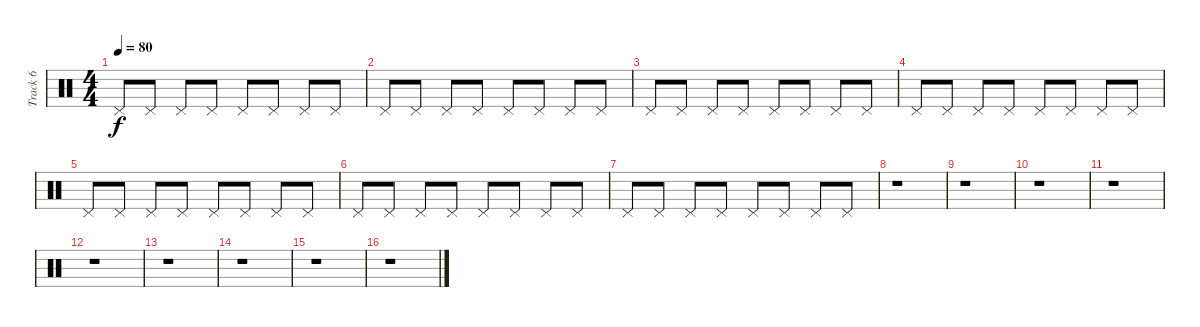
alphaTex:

\track ("Track 6" "Track 6") {instrument percussion}
\staff {score}
\articulation defaults
\ts (4 4)
\tempo 80
\clef neutral
\ks c "Pedal Hi-Hat (hit)".8{dy f} "Pedal Hi-Hat (hit)".8 "Pedal Hi-Hat (hit)".8 "Pedal Hi-Hat (hit)".8 "Pedal Hi-Hat (hit)".8 "Pedal Hi-Hat (hit)".8 "Pedal Hi-Hat (hit)".8 "Pedal Hi-Hat (hit)".8
|
"Pedal Hi-Hat (hit)".8 "Pedal Hi-Hat (hit)".8 "Pedal Hi-Hat (hit)".8 "Pedal Hi-Hat (hit)".8 "Pedal Hi-Hat (hit)".8 "Pedal Hi-Hat (hit)".8 "Pedal Hi-Hat (hit)".8 "Pedal Hi-Hat (hit)".8 |
"Pedal Hi-Hat (hit)".8 "Pedal Hi-Hat (hit)".8 "Pedal Hi-Hat (hit)".8 "Pedal Hi-Hat (hit)".8 "Pedal Hi-Hat (hit)".8 "Pedal Hi-Hat (hit)".8 "Pedal Hi-Hat (hit)".8 "Pedal Hi-Hat (hit)".8 |
"Pedal Hi-Hat (hit)".8 "Pedal Hi-Hat (hit)".8 "Pedal Hi-Hat (hit)".8 "Pedal Hi-Hat (hit)".8 "Pedal Hi-Hat (hit)".8 "Pedal Hi-Hat (hit)".8 "Pedal Hi-Hat (hit)".8 "Pedal Hi-Hat (hit)".8 |
"Pedal Hi-Hat (hit)".8 "Pedal Hi-Hat (hit)".8 "Pedal Hi-Hat (hit)".8 "Pedal Hi-Hat (hit)".8 "Pedal Hi-Hat (hit)".8 "Pedal Hi-Hat (hit)".8 "Pedal Hi-Hat (hit)".8 "Pedal Hi-Hat (hit)".8 |
"Pedal Hi-Hat (hit)".8 "Pedal Hi-Hat (hit)".8 "Pedal Hi-Hat (hit)".8 "Pedal Hi-Hat (hit)".8 "Pedal Hi-Hat (hit)".8 "Pedal Hi-Hat (hit)".8 "Pedal Hi-Hat (hit)".8 "Pedal Hi-Hat (hit)".8 |
"Pedal Hi-Hat (hit)".8 "Pedal Hi-Hat (hit)".8 "Pedal Hi-Hat (hit)".8 "Pedal Hi-Hat (hit)".8 "Pedal Hi-Hat (hit)".8 "Pedal Hi-Hat (hit)".8 "Pedal Hi-Hat (hit)".8 "Pedal Hi-Hat (hit)".8 |
r.1 |
r.1 |
r.1 |
r.1 |
r.1 |
r.1 |
r.1 |
r.1 |
r.1
